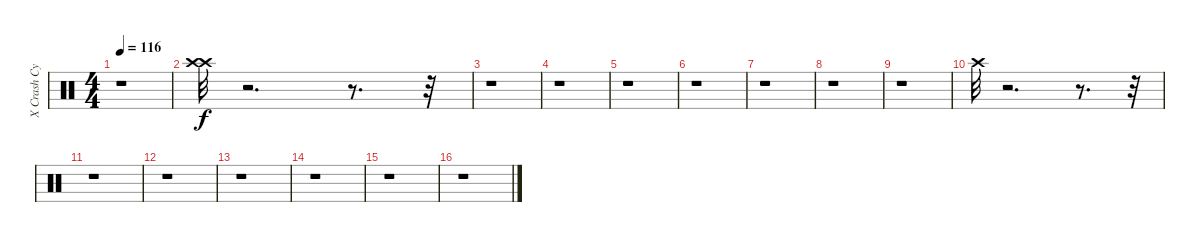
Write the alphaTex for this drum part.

\track ("X Crash Cymbal      " "X Crash Cy") {instrument percussion}
\staff {score}
\articulation defaults
\ts (4 4)
\tempo 116
\clef neutral
\ks c
r.1{dy f} |
("Crash high (hit)" "Crash high (hit)").32 r.2{d} r.8{d} r.32 |
r.1 |
r.1 |
r.1 |
r.1 |
r.1 |
r.1 |
r.1 |
"Crash high (hit)".32 r.2{d} r.8{d} r.32 |
r.1 |
r.1 |
r.1 |
r.1 |
r.1 |
r.1
